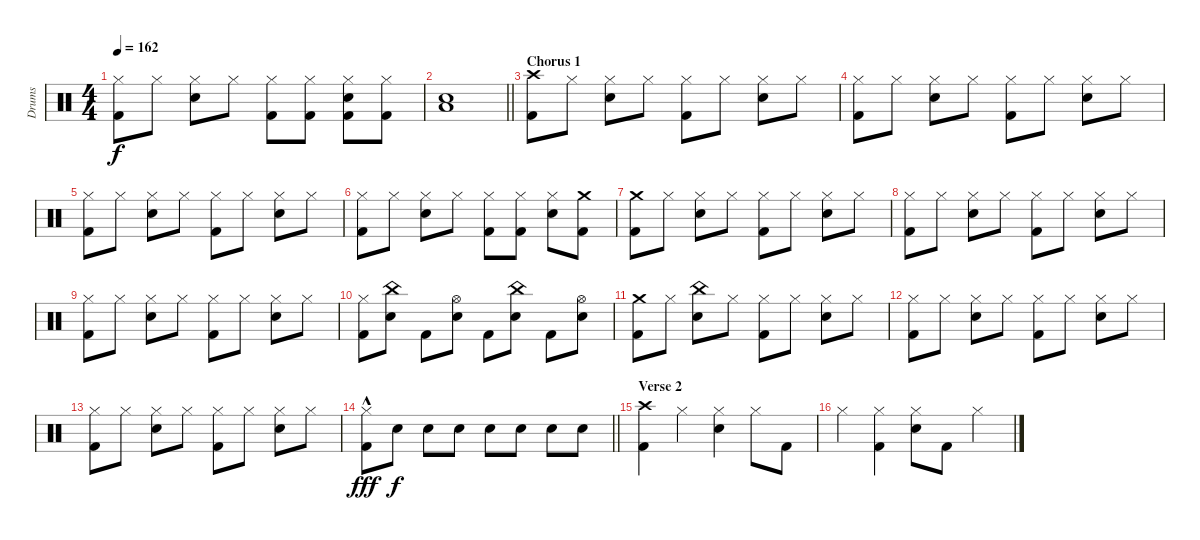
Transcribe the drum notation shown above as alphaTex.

\track ("Drums" "Drums") {instrument percussion}
\staff {score}
\articulation defaults
\ts (4 4)
\tempo 162
\clef neutral
\ks c
("Hi-Hat (closed)" "Kick (hit) 2").8{dy f} "Hi-Hat (closed)".8 ("Hi-Hat (closed)" "Electric Snare (hit)").8 "Hi-Hat (closed)".8 ("Hi-Hat (closed)" "Kick (hit) 2").8 ("Hi-Hat (closed)" "Kick (hit) 2").8 ("Hi-Hat (closed)" "Electric Snare (hit)" "Kick (hit) 2").8 ("Hi-Hat (closed)" "Kick (hit) 2").8 |
\barLineRight lightlight
("Low Floor Tom (hit)" "Electric Snare (hit)").1 |
\section ("" "Chorus 1")
("Crash high (hit)" "Kick (hit) 2").8 "Hi-Hat (closed)".8 ("Hi-Hat (closed)" "Electric Snare (hit)").8 "Hi-Hat (closed)".8 ("Hi-Hat (closed)" "Kick (hit) 2").8 "Hi-Hat (closed)".8 ("Hi-Hat (closed)" "Electric Snare (hit)").8 "Hi-Hat (closed)".8 |
("Hi-Hat (closed)" "Kick (hit) 2").8 "Hi-Hat (closed)".8 ("Hi-Hat (closed)" "Electric Snare (hit)").8 "Hi-Hat (closed)".8 ("Hi-Hat (closed)" "Kick (hit) 2").8 "Hi-Hat (closed)".8 ("Hi-Hat (closed)" "Electric Snare (hit)").8 "Hi-Hat (closed)".8 |
("Hi-Hat (closed)" "Kick (hit) 2").8 "Hi-Hat (closed)".8 ("Hi-Hat (closed)" "Electric Snare (hit)").8 "Hi-Hat (closed)".8 ("Hi-Hat (closed)" "Kick (hit) 2").8 "Hi-Hat (closed)".8 ("Hi-Hat (closed)" "Electric Snare (hit)").8 "Hi-Hat (closed)".8 |
("Hi-Hat (closed)" "Kick (hit) 2").8 "Hi-Hat (closed)".8 ("Hi-Hat (closed)" "Electric Snare (hit)").8 "Hi-Hat (closed)".8 ("Hi-Hat (closed)" "Kick (hit) 2").8 ("Hi-Hat (closed)" "Kick (hit) 2").8 ("Hi-Hat (closed)" "Electric Snare (hit)").8 ("Crash medium (hit)" "Kick (hit) 2").8 |
("Crash medium (hit)" "Kick (hit) 2").8 "Hi-Hat (closed)".8 ("Hi-Hat (closed)" "Electric Snare (hit)").8 "Hi-Hat (closed)".8 ("Hi-Hat (closed)" "Kick (hit) 2").8 "Hi-Hat (closed)".8 ("Hi-Hat (closed)" "Electric Snare (hit)").8 "Hi-Hat (closed)".8 |
("Hi-Hat (closed)" "Kick (hit) 2").8 "Hi-Hat (closed)".8 ("Hi-Hat (closed)" "Electric Snare (hit)").8 "Hi-Hat (closed)".8 ("Hi-Hat (closed)" "Kick (hit) 2").8 "Hi-Hat (closed)".8 ("Hi-Hat (closed)" "Electric Snare (hit)").8 "Hi-Hat (closed)".8 |
("Hi-Hat (closed)" "Kick (hit) 2").8 "Hi-Hat (closed)".8 ("Hi-Hat (closed)" "Electric Snare (hit)").8 "Hi-Hat (closed)".8 ("Hi-Hat (closed)" "Kick (hit) 2").8 "Hi-Hat (closed)".8 ("Hi-Hat (closed)" "Electric Snare (hit)").8 "Hi-Hat (closed)".8 |
("Hi-Hat (closed)" "Kick (hit) 2").8 ("China (hit)" "Electric Snare (hit)").8 "Kick (hit) 2".8 ("Hi-Hat (open)" "Electric Snare (hit)").8 "Kick (hit) 2".8 ("China (hit)" "Electric Snare (hit)").8 "Kick (hit) 2".8 ("Hi-Hat (open)" "Electric Snare (hit)").8 |
("Crash medium (hit)" "Kick (hit) 2").8 "Hi-Hat (closed)".8 ("China (hit)" "Electric Snare (hit)").8 "Hi-Hat (closed)".8 ("Hi-Hat (closed)" "Kick (hit) 2").8 "Hi-Hat (closed)".8 ("Hi-Hat (closed)" "Electric Snare (hit)").8 "Hi-Hat (closed)".8 |
("Hi-Hat (closed)" "Kick (hit) 2").8 "Hi-Hat (closed)".8 ("Hi-Hat (closed)" "Electric Snare (hit)").8 "Hi-Hat (closed)".8 ("Hi-Hat (closed)" "Kick (hit) 2").8 "Hi-Hat (closed)".8 ("Hi-Hat (closed)" "Electric Snare (hit)").8 "Hi-Hat (closed)".8 |
("Hi-Hat (closed)" "Kick (hit) 2").8 "Hi-Hat (closed)".8 ("Hi-Hat (closed)" "Electric Snare (hit)").8 "Hi-Hat (closed)".8 ("Hi-Hat (closed)" "Kick (hit) 2").8 "Hi-Hat (closed)".8 ("Hi-Hat (closed)" "Electric Snare (hit)").8 "Hi-Hat (closed)".8 |
\barLineRight lightlight
("Hi-Hat (closed)"{hac} "Kick (hit) 2").8{dy fff} "Electric Snare (hit)".8{dy f} "Electric Snare (hit)".8 "Electric Snare (hit)".8 "Electric Snare (hit)".8 "Electric Snare (hit)".8 "Electric Snare (hit)".8 "Electric Snare (hit)".8 |
\section ("" "Verse 2")
("Crash high (hit)" "Kick (hit) 2").4 "Hi-Hat (closed)".4 ("Hi-Hat (closed)" "Electric Snare (hit)").4 "Hi-Hat (closed)".8 "Kick (hit) 2".8 |
"Hi-Hat (closed)".4 ("Hi-Hat (closed)" "Kick (hit) 2").4 ("Hi-Hat (closed)" "Electric Snare (hit)").8 "Kick (hit) 2".8 "Hi-Hat (closed)".4
